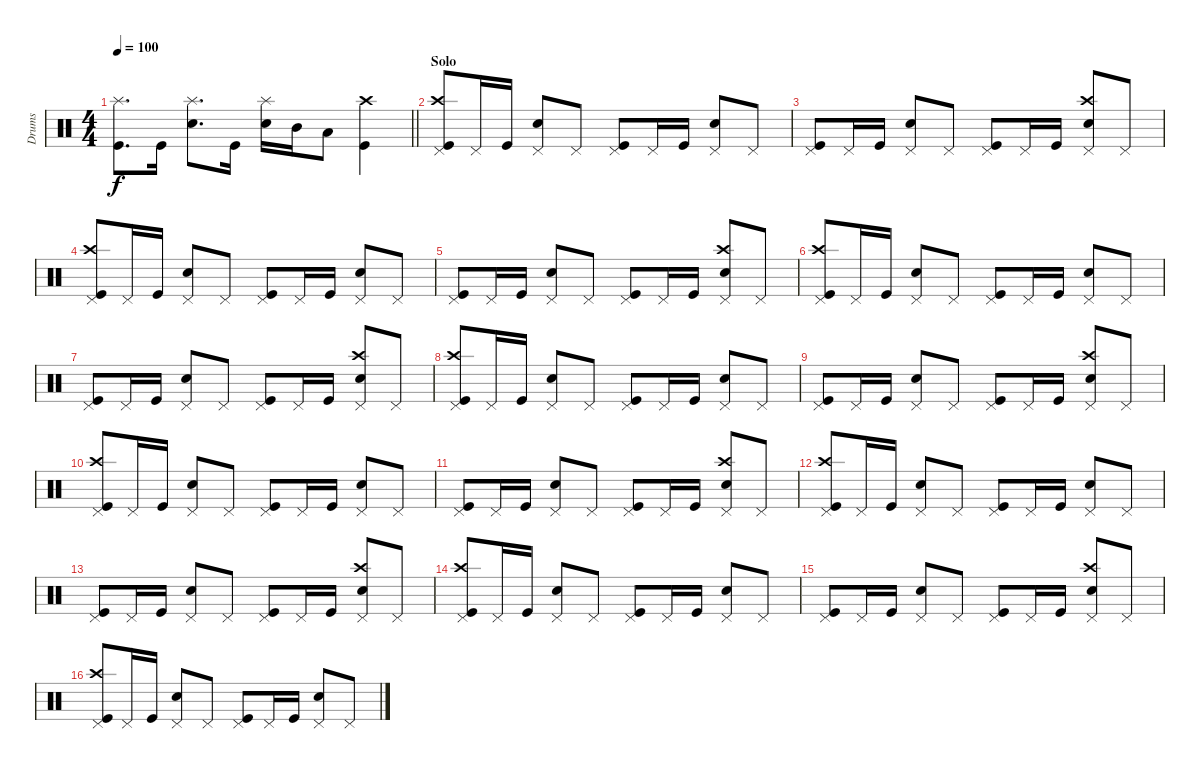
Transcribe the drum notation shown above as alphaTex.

\track ("Drums" "Drums") {instrument percussion}
\staff {score}
\articulation defaults
\ts (4 4)
\tempo 100
\clef neutral
\barLineRight lightlight
\ks c
("Splash (hit)" "Kick (hit)").8{d dy f} "Kick (hit)".16 ("Splash (hit)" "Snare (hit) 2").8{d} "Kick (hit)".16 ("Splash (hit)" "Snare (hit) 2").16 "Mid Tom (hit)".16 "Low Tom (hit)".8 ("Crash high (hit)" "Kick (hit)").4 |
\section ("" "Solo")
("Pedal Hi-Hat (hit)" "Kick (hit)" "Crash high (hit)").8 "Pedal Hi-Hat (hit)".16 "Kick (hit)".16 ("Pedal Hi-Hat (hit)" "Snare (hit) 2").8 "Pedal Hi-Hat (hit)".8 ("Pedal Hi-Hat (hit)" "Kick (hit)").8 "Pedal Hi-Hat (hit)".16 "Kick (hit)".16 ("Pedal Hi-Hat (hit)" "Snare (hit) 2").8 "Pedal Hi-Hat (hit)".8 |
("Pedal Hi-Hat (hit)" "Kick (hit)").8 "Pedal Hi-Hat (hit)".16 "Kick (hit)".16 ("Pedal Hi-Hat (hit)" "Snare (hit) 2").8 "Pedal Hi-Hat (hit)".8 ("Pedal Hi-Hat (hit)" "Kick (hit)").8 "Pedal Hi-Hat (hit)".16 "Kick (hit)".16 ("Pedal Hi-Hat (hit)" "Snare (hit) 2" "Crash high (hit)").8 "Pedal Hi-Hat (hit)".8 |
("Pedal Hi-Hat (hit)" "Kick (hit)" "Crash high (hit)").8 "Pedal Hi-Hat (hit)".16 "Kick (hit)".16 ("Pedal Hi-Hat (hit)" "Snare (hit) 2").8 "Pedal Hi-Hat (hit)".8 ("Pedal Hi-Hat (hit)" "Kick (hit)").8 "Pedal Hi-Hat (hit)".16 "Kick (hit)".16 ("Pedal Hi-Hat (hit)" "Snare (hit) 2").8 "Pedal Hi-Hat (hit)".8 |
("Pedal Hi-Hat (hit)" "Kick (hit)").8 "Pedal Hi-Hat (hit)".16 "Kick (hit)".16 ("Pedal Hi-Hat (hit)" "Snare (hit) 2").8 "Pedal Hi-Hat (hit)".8 ("Pedal Hi-Hat (hit)" "Kick (hit)").8 "Pedal Hi-Hat (hit)".16 "Kick (hit)".16 ("Pedal Hi-Hat (hit)" "Snare (hit) 2" "Crash high (hit)").8 "Pedal Hi-Hat (hit)".8 |
("Pedal Hi-Hat (hit)" "Kick (hit)" "Crash high (hit)").8 "Pedal Hi-Hat (hit)".16 "Kick (hit)".16 ("Pedal Hi-Hat (hit)" "Snare (hit) 2").8 "Pedal Hi-Hat (hit)".8 ("Pedal Hi-Hat (hit)" "Kick (hit)").8 "Pedal Hi-Hat (hit)".16 "Kick (hit)".16 ("Pedal Hi-Hat (hit)" "Snare (hit) 2").8 "Pedal Hi-Hat (hit)".8 |
("Pedal Hi-Hat (hit)" "Kick (hit)").8 "Pedal Hi-Hat (hit)".16 "Kick (hit)".16 ("Pedal Hi-Hat (hit)" "Snare (hit) 2").8 "Pedal Hi-Hat (hit)".8 ("Pedal Hi-Hat (hit)" "Kick (hit)").8 "Pedal Hi-Hat (hit)".16 "Kick (hit)".16 ("Pedal Hi-Hat (hit)" "Snare (hit) 2" "Crash high (hit)").8 "Pedal Hi-Hat (hit)".8 |
("Pedal Hi-Hat (hit)" "Kick (hit)" "Crash high (hit)").8 "Pedal Hi-Hat (hit)".16 "Kick (hit)".16 ("Pedal Hi-Hat (hit)" "Snare (hit) 2").8 "Pedal Hi-Hat (hit)".8 ("Pedal Hi-Hat (hit)" "Kick (hit)").8 "Pedal Hi-Hat (hit)".16 "Kick (hit)".16 ("Pedal Hi-Hat (hit)" "Snare (hit) 2").8 "Pedal Hi-Hat (hit)".8 |
("Pedal Hi-Hat (hit)" "Kick (hit)").8 "Pedal Hi-Hat (hit)".16 "Kick (hit)".16 ("Pedal Hi-Hat (hit)" "Snare (hit) 2").8 "Pedal Hi-Hat (hit)".8 ("Pedal Hi-Hat (hit)" "Kick (hit)").8 "Pedal Hi-Hat (hit)".16 "Kick (hit)".16 ("Pedal Hi-Hat (hit)" "Snare (hit) 2" "Crash high (hit)").8 "Pedal Hi-Hat (hit)".8 |
("Pedal Hi-Hat (hit)" "Kick (hit)" "Crash high (hit)").8 "Pedal Hi-Hat (hit)".16 "Kick (hit)".16 ("Pedal Hi-Hat (hit)" "Snare (hit) 2").8 "Pedal Hi-Hat (hit)".8 ("Pedal Hi-Hat (hit)" "Kick (hit)").8 "Pedal Hi-Hat (hit)".16 "Kick (hit)".16 ("Pedal Hi-Hat (hit)" "Snare (hit) 2").8 "Pedal Hi-Hat (hit)".8 |
("Pedal Hi-Hat (hit)" "Kick (hit)").8 "Pedal Hi-Hat (hit)".16 "Kick (hit)".16 ("Pedal Hi-Hat (hit)" "Snare (hit) 2").8 "Pedal Hi-Hat (hit)".8 ("Pedal Hi-Hat (hit)" "Kick (hit)").8 "Pedal Hi-Hat (hit)".16 "Kick (hit)".16 ("Pedal Hi-Hat (hit)" "Snare (hit) 2" "Crash high (hit)").8 "Pedal Hi-Hat (hit)".8 |
("Pedal Hi-Hat (hit)" "Kick (hit)" "Crash high (hit)").8 "Pedal Hi-Hat (hit)".16 "Kick (hit)".16 ("Pedal Hi-Hat (hit)" "Snare (hit) 2").8 "Pedal Hi-Hat (hit)".8 ("Pedal Hi-Hat (hit)" "Kick (hit)").8 "Pedal Hi-Hat (hit)".16 "Kick (hit)".16 ("Pedal Hi-Hat (hit)" "Snare (hit) 2").8 "Pedal Hi-Hat (hit)".8 |
("Pedal Hi-Hat (hit)" "Kick (hit)").8 "Pedal Hi-Hat (hit)".16 "Kick (hit)".16 ("Pedal Hi-Hat (hit)" "Snare (hit) 2").8 "Pedal Hi-Hat (hit)".8 ("Pedal Hi-Hat (hit)" "Kick (hit)").8 "Pedal Hi-Hat (hit)".16 "Kick (hit)".16 ("Pedal Hi-Hat (hit)" "Snare (hit) 2" "Crash high (hit)").8 "Pedal Hi-Hat (hit)".8 |
("Pedal Hi-Hat (hit)" "Kick (hit)" "Crash high (hit)").8 "Pedal Hi-Hat (hit)".16 "Kick (hit)".16 ("Pedal Hi-Hat (hit)" "Snare (hit) 2").8 "Pedal Hi-Hat (hit)".8 ("Pedal Hi-Hat (hit)" "Kick (hit)").8 "Pedal Hi-Hat (hit)".16 "Kick (hit)".16 ("Pedal Hi-Hat (hit)" "Snare (hit) 2").8 "Pedal Hi-Hat (hit)".8 |
("Pedal Hi-Hat (hit)" "Kick (hit)").8 "Pedal Hi-Hat (hit)".16 "Kick (hit)".16 ("Pedal Hi-Hat (hit)" "Snare (hit) 2").8 "Pedal Hi-Hat (hit)".8 ("Pedal Hi-Hat (hit)" "Kick (hit)").8 "Pedal Hi-Hat (hit)".16 "Kick (hit)".16 ("Pedal Hi-Hat (hit)" "Snare (hit) 2" "Crash high (hit)").8 "Pedal Hi-Hat (hit)".8 |
("Pedal Hi-Hat (hit)" "Kick (hit)" "Crash high (hit)").8 "Pedal Hi-Hat (hit)".16 "Kick (hit)".16 ("Pedal Hi-Hat (hit)" "Snare (hit) 2").8 "Pedal Hi-Hat (hit)".8 ("Pedal Hi-Hat (hit)" "Kick (hit)").8 "Pedal Hi-Hat (hit)".16 "Kick (hit)".16 ("Pedal Hi-Hat (hit)" "Snare (hit) 2").8 "Pedal Hi-Hat (hit)".8
